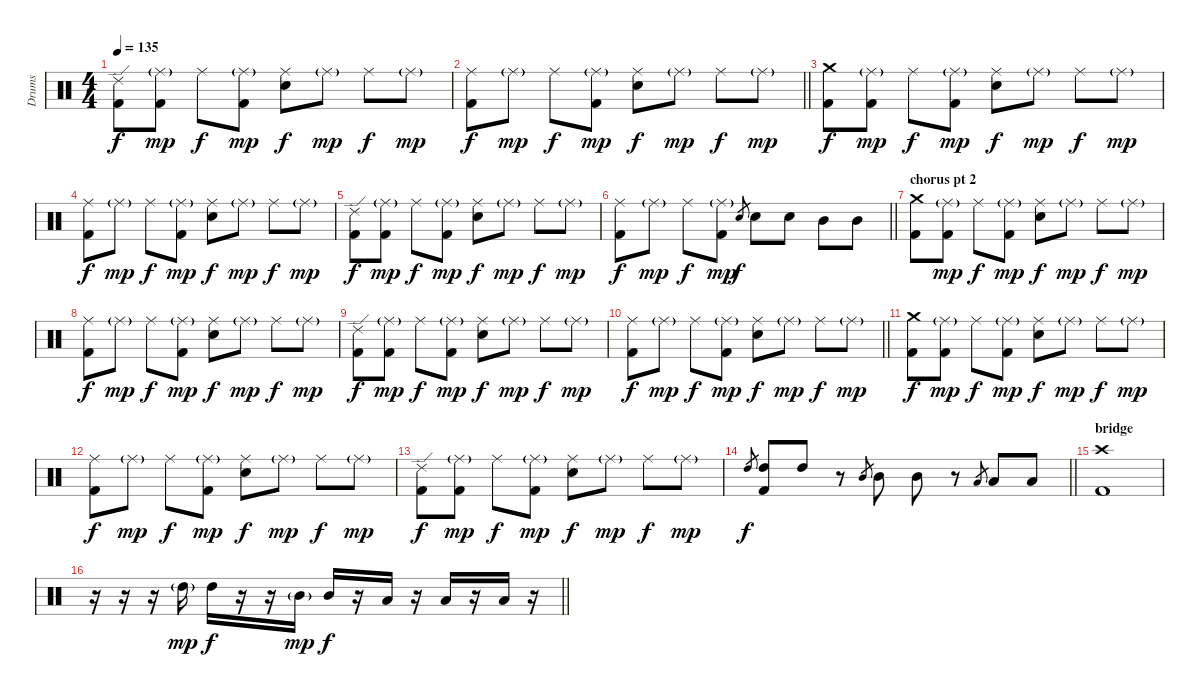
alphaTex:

\track ("Drums" "Drums") {instrument percussion}
\staff {score}
\articulation defaults
\ts (4 4)
\tempo 135
\clef neutral
\ks c
("Ride (edge) 2" "Kick (hit) 2").8{dy f} ("Ride (middle)"{g} "Kick (hit) 2").8{dy mp} "Ride (middle)".8{dy f} ("Ride (middle)"{g} "Kick (hit) 2").8{dy mp} ("Ride (middle)" "Electric Snare (hit)").8{dy f} "Ride (middle)"{g}.8{dy mp} "Ride (middle)".8{dy f} "Ride (middle)"{g}.8{dy mp} |
\barLineRight lightlight
("Kick (hit) 2" "Ride (middle)").8{dy f} "Ride (middle)"{g}.8{dy mp} "Ride (middle)".8{dy f} ("Kick (hit) 2" "Ride (middle)"{g}).8{dy mp} ("Electric Snare (hit)" "Ride (middle)").8{dy f} "Ride (middle)"{g}.8{dy mp} "Ride (middle)".8{dy f} "Ride (middle)"{g}.8{dy mp} |
\section ("" "")
("Crash medium (hit)" "Kick (hit) 2").8{dy f} ("Ride (middle)"{g} "Kick (hit) 2").8{dy mp} "Ride (middle)".8{dy f} ("Ride (middle)"{g} "Kick (hit) 2").8{dy mp} ("Ride (middle)" "Electric Snare (hit)").8{dy f} "Ride (middle)"{g}.8{dy mp} "Ride (middle)".8{dy f} "Ride (middle)"{g}.8{dy mp} |
("Kick (hit) 2" "Ride (middle)").8{dy f} "Ride (middle)"{g}.8{dy mp} "Ride (middle)".8{dy f} ("Kick (hit) 2" "Ride (middle)"{g}).8{dy mp} ("Electric Snare (hit)" "Ride (middle)").8{dy f} "Ride (middle)"{g}.8{dy mp} "Ride (middle)".8{dy f} "Ride (middle)"{g}.8{dy mp} |
("Ride (edge) 2" "Kick (hit) 2").8{dy f} ("Ride (middle)"{g} "Kick (hit) 2").8{dy mp} "Ride (middle)".8{dy f} ("Ride (middle)"{g} "Kick (hit) 2").8{dy mp} ("Ride (middle)" "Electric Snare (hit)").8{dy f} "Ride (middle)"{g}.8{dy mp} "Ride (middle)".8{dy f} "Ride (middle)"{g}.8{dy mp} |
\barLineRight lightlight
("Kick (hit) 2" "Ride (middle)").8{dy f} "Ride (middle)"{g}.8{dy mp} "Ride (middle)".8{dy f} ("Kick (hit) 2" "Ride (middle)"{g}).8{dy mp} "Electric Snare (hit)".8{gr dy f} "Electric Snare (hit)".8 "Electric Snare (hit)".8 "Mid Tom (hit)".8 "Mid Tom (hit)".8 |
\section ("" "chorus pt 2")
("Crash medium (hit)" "Kick (hit) 2").8 ("Ride (middle)"{g} "Kick (hit) 2").8{dy mp} "Ride (middle)".8{dy f} ("Ride (middle)"{g} "Kick (hit) 2").8{dy mp} ("Ride (middle)" "Electric Snare (hit)").8{dy f} "Ride (middle)"{g}.8{dy mp} "Ride (middle)".8{dy f} "Ride (middle)"{g}.8{dy mp} |
("Kick (hit) 2" "Ride (middle)").8{dy f} "Ride (middle)"{g}.8{dy mp} "Ride (middle)".8{dy f} ("Kick (hit) 2" "Ride (middle)"{g}).8{dy mp} ("Electric Snare (hit)" "Ride (middle)").8{dy f} "Ride (middle)"{g}.8{dy mp} "Ride (middle)".8{dy f} "Ride (middle)"{g}.8{dy mp} |
("Ride (edge) 2" "Kick (hit) 2").8{dy f} ("Ride (middle)"{g} "Kick (hit) 2").8{dy mp} "Ride (middle)".8{dy f} ("Ride (middle)"{g} "Kick (hit) 2").8{dy mp} ("Ride (middle)" "Electric Snare (hit)").8{dy f} "Ride (middle)"{g}.8{dy mp} "Ride (middle)".8{dy f} "Ride (middle)"{g}.8{dy mp} |
\barLineRight lightlight
("Kick (hit) 2" "Ride (middle)").8{dy f} "Ride (middle)"{g}.8{dy mp} "Ride (middle)".8{dy f} ("Kick (hit) 2" "Ride (middle)"{g}).8{dy mp} ("Electric Snare (hit)" "Ride (middle)").8{dy f} "Ride (middle)"{g}.8{dy mp} "Ride (middle)".8{dy f} "Ride (middle)"{g}.8{dy mp} |
\section ("" "")
("Crash medium (hit)" "Kick (hit) 2").8{dy f} ("Ride (middle)"{g} "Kick (hit) 2").8{dy mp} "Ride (middle)".8{dy f} ("Ride (middle)"{g} "Kick (hit) 2").8{dy mp} ("Ride (middle)" "Electric Snare (hit)").8{dy f} "Ride (middle)"{g}.8{dy mp} "Ride (middle)".8{dy f} "Ride (middle)"{g}.8{dy mp} |
("Kick (hit) 2" "Ride (middle)").8{dy f} "Ride (middle)"{g}.8{dy mp} "Ride (middle)".8{dy f} ("Kick (hit) 2" "Ride (middle)"{g}).8{dy mp} ("Electric Snare (hit)" "Ride (middle)").8{dy f} "Ride (middle)"{g}.8{dy mp} "Ride (middle)".8{dy f} "Ride (middle)"{g}.8{dy mp} |
("Ride (edge) 2" "Kick (hit) 2").8{dy f} ("Ride (middle)"{g} "Kick (hit) 2").8{dy mp} "Ride (middle)".8{dy f} ("Ride (middle)"{g} "Kick (hit) 2").8{dy mp} ("Ride (middle)" "Electric Snare (hit)").8{dy f} "Ride (middle)"{g}.8{dy mp} "Ride (middle)".8{dy f} "Ride (middle)"{g}.8{dy mp} |
\barLineRight lightlight "High Tom (hit)".8{gr dy f}
("Kick (hit) 2" "High Tom (hit)").8 "High Tom (hit)".8 r.8 "Mid Tom (hit)".8{gr} "Mid Tom (hit)".8 "Mid Tom (hit)".8 r.8 "Low Tom (hit)".8{gr} "Low Tom (hit)".8 "Low Tom (hit)".8 |
\section ("" "bridge")
("Kick (hit) 2" "Crash high (hit)").1 |
\barLineRight lightlight
r.16 r.16 r.16 "High Tom (hit)"{g}.16{dy mp} "High Tom (hit)".16{dy f} r.16 r.16 "Mid Tom (hit)"{g}.16{dy mp} "Mid Tom (hit)".16{dy f} r.16 "Low Tom (hit)".16 r.16 "Low Tom (hit)".16 r.16 "Low Tom (hit)".16 r.16
